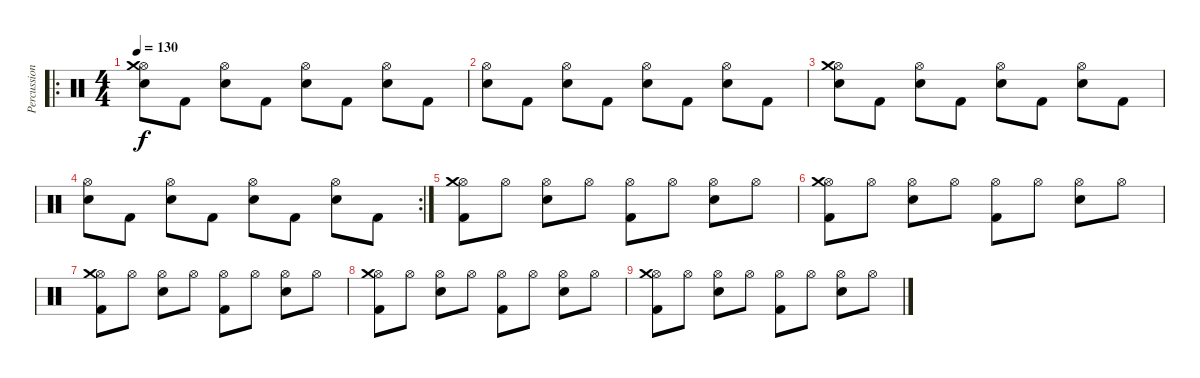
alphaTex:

\track ("Percussion" "Percussion") {instrument percussion}
\staff {score}
\articulation defaults
\ro
\ts (4 4)
\tempo 130
\clef neutral
\ks c
("Snare (hit) 2" "Hi-Hat (open)" "Crash medium (hit)").8{dy f} "Kick (hit) 2".8 ("Snare (hit) 2" "Hi-Hat (open)").8 "Kick (hit) 2".8 ("Snare (hit) 2" "Hi-Hat (open)").8 "Kick (hit) 2".8 ("Snare (hit) 2" "Hi-Hat (open)").8 "Kick (hit) 2".8 |
("Snare (hit) 2" "Hi-Hat (open)").8 "Kick (hit) 2".8 ("Snare (hit) 2" "Hi-Hat (open)").8 "Kick (hit) 2".8 ("Snare (hit) 2" "Hi-Hat (open)").8 "Kick (hit) 2".8 ("Snare (hit) 2" "Hi-Hat (open)").8 "Kick (hit) 2".8 |
("Snare (hit) 2" "Hi-Hat (open)" "Crash medium (hit)").8 "Kick (hit) 2".8 ("Snare (hit) 2" "Hi-Hat (open)").8 "Kick (hit) 2".8 ("Snare (hit) 2" "Hi-Hat (open)").8 "Kick (hit) 2".8 ("Snare (hit) 2" "Hi-Hat (open)").8 "Kick (hit) 2".8 |
\rc 2
("Snare (hit) 2" "Hi-Hat (open)").8 "Kick (hit) 2".8 ("Snare (hit) 2" "Hi-Hat (open)").8 "Kick (hit) 2".8 ("Snare (hit) 2" "Hi-Hat (open)").8 "Kick (hit) 2".8 ("Snare (hit) 2" "Hi-Hat (open)").8 "Kick (hit) 2".8 |
("Hi-Hat (open)" "Kick (hit) 2" "Crash medium (hit)").8{volume 13} "Hi-Hat (open)".8 ("Hi-Hat (open)" "Snare (hit) 2").8 "Hi-Hat (open)".8 ("Hi-Hat (open)" "Kick (hit) 2").8 "Hi-Hat (open)".8 ("Hi-Hat (open)" "Snare (hit) 2").8 "Hi-Hat (open)".8 |
("Hi-Hat (open)" "Kick (hit) 2" "Crash medium (hit)").8{volume 10} "Hi-Hat (open)".8 ("Hi-Hat (open)" "Snare (hit) 2").8 "Hi-Hat (open)".8 ("Hi-Hat (open)" "Kick (hit) 2").8 "Hi-Hat (open)".8 ("Hi-Hat (open)" "Snare (hit) 2").8 "Hi-Hat (open)".8 |
("Hi-Hat (open)" "Kick (hit) 2" "Crash medium (hit)").8 "Hi-Hat (open)".8 ("Hi-Hat (open)" "Snare (hit) 2").8{volume 7} "Hi-Hat (open)".8 ("Hi-Hat (open)" "Kick (hit) 2").8 "Hi-Hat (open)".8 ("Hi-Hat (open)" "Snare (hit) 2").8 "Hi-Hat (open)".8 |
("Hi-Hat (open)" "Kick (hit) 2" "Crash medium (hit)").8{volume 4} "Hi-Hat (open)".8 ("Hi-Hat (open)" "Snare (hit) 2").8 "Hi-Hat (open)".8 ("Hi-Hat (open)" "Kick (hit) 2").8 "Hi-Hat (open)".8 ("Hi-Hat (open)" "Snare (hit) 2").8 "Hi-Hat (open)".8 |
("Hi-Hat (open)" "Kick (hit) 2" "Crash medium (hit)").8{volume 2} "Hi-Hat (open)".8 ("Hi-Hat (open)" "Snare (hit) 2").8 "Hi-Hat (open)".8 ("Hi-Hat (open)" "Kick (hit) 2").8 "Hi-Hat (open)".8 ("Hi-Hat (open)" "Snare (hit) 2").8 "Hi-Hat (open)".8
